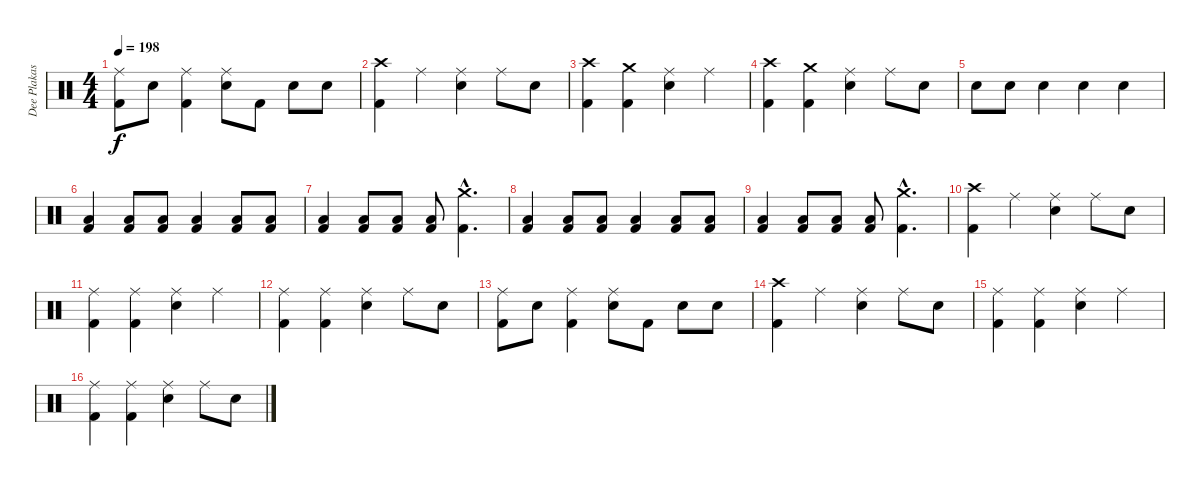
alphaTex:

\track ("Dee Plakas" "Dee Plakas") {instrument percussion}
\staff {score}
\articulation defaults
\ts (4 4)
\tempo 198
\clef neutral
\ks c
("Ride (middle)" "Kick (hit) 2").8{dy f} "Snare (hit) 2".8 ("Ride (middle)" "Kick (hit) 2").4 ("Ride (middle)" "Snare (hit) 2").8 "Kick (hit) 2".8 "Snare (hit) 2".8 "Snare (hit) 2".8 |
("Crash high (hit)" "Kick (hit) 2").4 "Ride (middle)".4 ("Ride (middle)" "Snare (hit) 2").4 "Ride (middle)".8 "Snare (hit) 2".8 |
("Crash high (hit)" "Kick (hit) 2").4 ("Crash medium (hit)" "Kick (hit) 2").4 ("Ride (middle)" "Snare (hit) 2").4 "Ride (middle)".4 |
("Crash high (hit)" "Kick (hit) 2").4 ("Crash medium (hit)" "Kick (hit) 2").4 ("Ride (middle)" "Snare (hit) 2").4 "Ride (middle)".8 "Snare (hit) 2".8 |
"Snare (hit) 2".8 "Snare (hit) 2".8 "Snare (hit) 2".4 "Snare (hit) 2".4 "Snare (hit) 2".4 |
("Low Floor Tom (hit)" "Kick (hit) 2").4 ("Low Floor Tom (hit)" "Kick (hit) 2").8 ("Low Floor Tom (hit)" "Kick (hit) 2").8 ("Low Floor Tom (hit)" "Kick (hit) 2").4 ("Low Floor Tom (hit)" "Kick (hit) 2").8 ("Low Floor Tom (hit)" "Kick (hit) 2").8 |
("Low Floor Tom (hit)" "Kick (hit) 2").4 ("Low Floor Tom (hit)" "Kick (hit) 2").8 ("Low Floor Tom (hit)" "Kick (hit) 2").8 ("Low Floor Tom (hit)" "Kick (hit) 2").8 ("Crash medium (hit)"{hac} "Kick (hit) 2"{hac}).4{d} |
("Low Floor Tom (hit)" "Kick (hit) 2").4 ("Low Floor Tom (hit)" "Kick (hit) 2").8 ("Low Floor Tom (hit)" "Kick (hit) 2").8 ("Low Floor Tom (hit)" "Kick (hit) 2").4 ("Low Floor Tom (hit)" "Kick (hit) 2").8 ("Low Floor Tom (hit)" "Kick (hit) 2").8 |
("Low Floor Tom (hit)" "Kick (hit) 2").4 ("Low Floor Tom (hit)" "Kick (hit) 2").8 ("Low Floor Tom (hit)" "Kick (hit) 2").8 ("Low Floor Tom (hit)" "Kick (hit) 2").8 ("Crash medium (hit)"{hac} "Kick (hit) 2"{hac}).4{d} |
("Crash high (hit)" "Kick (hit) 2").4 "Ride (middle)".4 ("Ride (middle)" "Snare (hit) 2").4 "Ride (middle)".8 "Snare (hit) 2".8 |
("Ride (middle)" "Kick (hit) 2").4 ("Ride (middle)" "Kick (hit) 2").4 ("Ride (middle)" "Snare (hit) 2").4 "Ride (middle)".4 |
("Ride (middle)" "Kick (hit) 2").4 ("Ride (middle)" "Kick (hit) 2").4 ("Ride (middle)" "Snare (hit) 2").4 "Ride (middle)".8 "Snare (hit) 2".8 |
("Ride (middle)" "Kick (hit) 2").8 "Snare (hit) 2".8 ("Ride (middle)" "Kick (hit) 2").4 ("Ride (middle)" "Snare (hit) 2").8 "Kick (hit) 2".8 "Snare (hit) 2".8 "Snare (hit) 2".8 |
("Crash high (hit)" "Kick (hit) 2").4 "Ride (middle)".4 ("Ride (middle)" "Snare (hit) 2").4 "Ride (middle)".8 "Snare (hit) 2".8 |
("Ride (middle)" "Kick (hit) 2").4 ("Ride (middle)" "Kick (hit) 2").4 ("Ride (middle)" "Snare (hit) 2").4 "Ride (middle)".4 |
("Ride (middle)" "Kick (hit) 2").4 ("Ride (middle)" "Kick (hit) 2").4 ("Ride (middle)" "Snare (hit) 2").4 "Ride (middle)".8 "Snare (hit) 2".8
